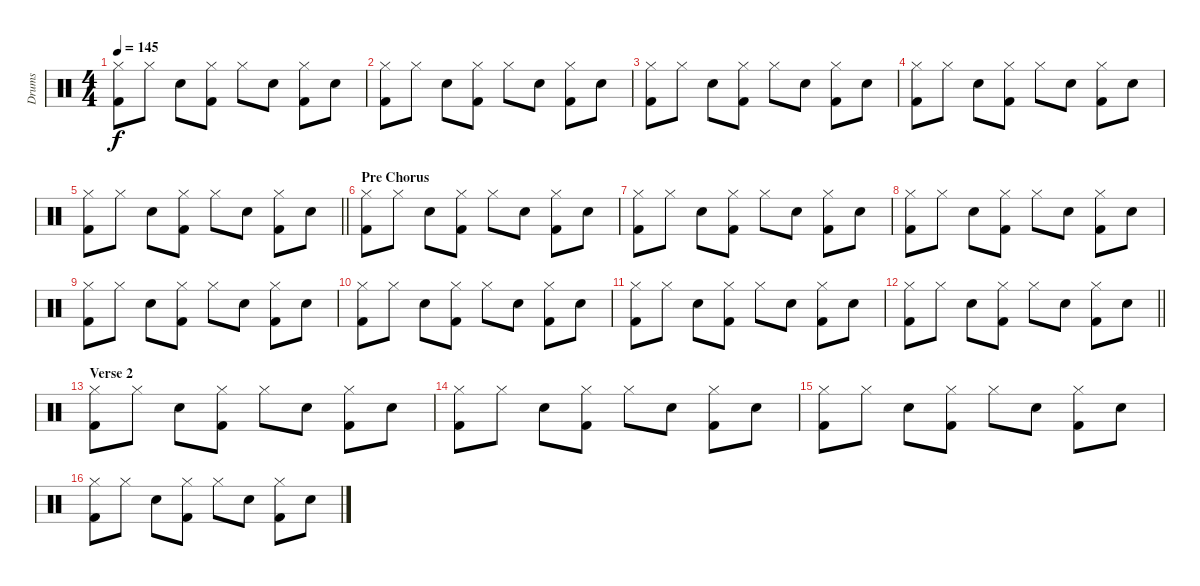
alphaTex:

\track ("Drums" "Drums") {instrument percussion}
\staff {score}
\articulation defaults
\ts (4 4)
\tempo 145
\clef neutral
\ks c
("Hi-Hat (closed)" "Kick (hit) 2").8{dy f} "Hi-Hat (closed)".8 "Snare (hit) 2".8 ("Hi-Hat (closed)" "Kick (hit) 2").8 "Hi-Hat (closed)".8 "Snare (hit) 2".8 ("Hi-Hat (closed)" "Kick (hit) 2").8 "Snare (hit) 2".8 |
("Hi-Hat (closed)" "Kick (hit) 2").8 "Hi-Hat (closed)".8 "Snare (hit) 2".8 ("Hi-Hat (closed)" "Kick (hit) 2").8 "Hi-Hat (closed)".8 "Snare (hit) 2".8 ("Hi-Hat (closed)" "Kick (hit) 2").8 "Snare (hit) 2".8 |
("Hi-Hat (closed)" "Kick (hit) 2").8 "Hi-Hat (closed)".8 "Snare (hit) 2".8 ("Hi-Hat (closed)" "Kick (hit) 2").8 "Hi-Hat (closed)".8 "Snare (hit) 2".8 ("Hi-Hat (closed)" "Kick (hit) 2").8 "Snare (hit) 2".8 |
("Hi-Hat (closed)" "Kick (hit) 2").8 "Hi-Hat (closed)".8 "Snare (hit) 2".8 ("Hi-Hat (closed)" "Kick (hit) 2").8 "Hi-Hat (closed)".8 "Snare (hit) 2".8 ("Hi-Hat (closed)" "Kick (hit) 2").8 "Snare (hit) 2".8 |
\barLineRight lightlight
("Hi-Hat (closed)" "Kick (hit) 2").8 "Hi-Hat (closed)".8 "Snare (hit) 2".8 ("Hi-Hat (closed)" "Kick (hit) 2").8 "Hi-Hat (closed)".8 "Snare (hit) 2".8 ("Hi-Hat (closed)" "Kick (hit) 2").8 "Snare (hit) 2".8 |
\section ("" "Pre Chorus")
("Hi-Hat (closed)" "Kick (hit) 2").8 "Hi-Hat (closed)".8 "Snare (hit) 2".8 ("Hi-Hat (closed)" "Kick (hit) 2").8 "Hi-Hat (closed)".8 "Snare (hit) 2".8 ("Hi-Hat (closed)" "Kick (hit) 2").8 "Snare (hit) 2".8 |
("Hi-Hat (closed)" "Kick (hit) 2").8 "Hi-Hat (closed)".8 "Snare (hit) 2".8 ("Hi-Hat (closed)" "Kick (hit) 2").8 "Hi-Hat (closed)".8 "Snare (hit) 2".8 ("Hi-Hat (closed)" "Kick (hit) 2").8 "Snare (hit) 2".8 |
("Hi-Hat (closed)" "Kick (hit) 2").8 "Hi-Hat (closed)".8 "Snare (hit) 2".8 ("Hi-Hat (closed)" "Kick (hit) 2").8 "Hi-Hat (closed)".8 "Snare (hit) 2".8 ("Hi-Hat (closed)" "Kick (hit) 2").8 "Snare (hit) 2".8 |
("Hi-Hat (closed)" "Kick (hit) 2").8 "Hi-Hat (closed)".8 "Snare (hit) 2".8 ("Hi-Hat (closed)" "Kick (hit) 2").8 "Hi-Hat (closed)".8 "Snare (hit) 2".8 ("Hi-Hat (closed)" "Kick (hit) 2").8 "Snare (hit) 2".8 |
("Hi-Hat (closed)" "Kick (hit) 2").8 "Hi-Hat (closed)".8 "Snare (hit) 2".8 ("Hi-Hat (closed)" "Kick (hit) 2").8 "Hi-Hat (closed)".8 "Snare (hit) 2".8 ("Hi-Hat (closed)" "Kick (hit) 2").8 "Snare (hit) 2".8 |
("Hi-Hat (closed)" "Kick (hit) 2").8 "Hi-Hat (closed)".8 "Snare (hit) 2".8 ("Hi-Hat (closed)" "Kick (hit) 2").8 "Hi-Hat (closed)".8 "Snare (hit) 2".8 ("Hi-Hat (closed)" "Kick (hit) 2").8 "Snare (hit) 2".8 |
\barLineRight lightlight
("Hi-Hat (closed)" "Kick (hit) 2").8 "Hi-Hat (closed)".8 "Snare (hit) 2".8 ("Hi-Hat (closed)" "Kick (hit) 2").8 "Hi-Hat (closed)".8 "Snare (hit) 2".8 ("Hi-Hat (closed)" "Kick (hit) 2").8 "Snare (hit) 2".8 |
\section ("" "Verse 2")
("Hi-Hat (closed)" "Kick (hit) 2").8 "Hi-Hat (closed)".8 "Snare (hit) 2".8 ("Hi-Hat (closed)" "Kick (hit) 2").8 "Hi-Hat (closed)".8 "Snare (hit) 2".8 ("Hi-Hat (closed)" "Kick (hit) 2").8 "Snare (hit) 2".8 |
("Hi-Hat (closed)" "Kick (hit) 2").8 "Hi-Hat (closed)".8 "Snare (hit) 2".8 ("Hi-Hat (closed)" "Kick (hit) 2").8 "Hi-Hat (closed)".8 "Snare (hit) 2".8 ("Hi-Hat (closed)" "Kick (hit) 2").8 "Snare (hit) 2".8 |
("Hi-Hat (closed)" "Kick (hit) 2").8 "Hi-Hat (closed)".8 "Snare (hit) 2".8 ("Hi-Hat (closed)" "Kick (hit) 2").8 "Hi-Hat (closed)".8 "Snare (hit) 2".8 ("Hi-Hat (closed)" "Kick (hit) 2").8 "Snare (hit) 2".8 |
("Hi-Hat (closed)" "Kick (hit) 2").8 "Hi-Hat (closed)".8 "Snare (hit) 2".8 ("Hi-Hat (closed)" "Kick (hit) 2").8 "Hi-Hat (closed)".8 "Snare (hit) 2".8 ("Hi-Hat (closed)" "Kick (hit) 2").8 "Snare (hit) 2".8
